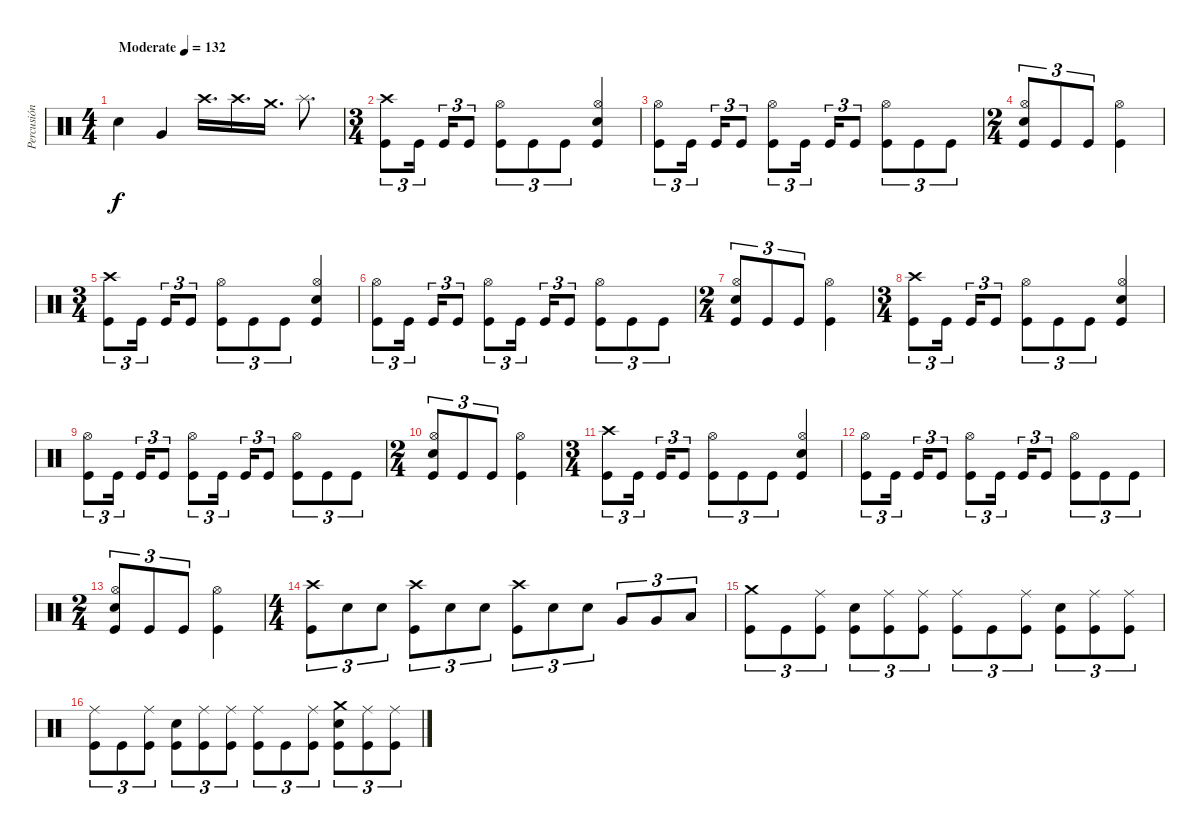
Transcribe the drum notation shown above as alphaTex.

\track ("Percusión" "Percusión") {instrument percussion}
\staff
\articulation defaults
\ts (4 4)
\tempo (132 "Moderate")
\clef neutral
\ks c "Snare (hit) 2".4{dy f} "Very Low Tom (hit)".4 "Crash high (hit)".16{d} "Crash high (hit)".16{d} "Crash medium (hit)".16{d} "Splash (hit)".8{d}
|
\ts (3 4)
("Kick (hit)" "Crash high (hit)").8{tu (3 2)} "Kick (hit)".16{tu (3 2) beam splitsecondary} "Kick (hit)".16{tu (3 2)} "Kick (hit)".8{tu (3 2)} ("Kick (hit)" "Hi-Hat (open)").8{tu (3 2)} "Kick (hit)".8{tu (3 2)} "Kick (hit)".8{tu (3 2)} ("Kick (hit)" "Electric Snare (hit)" "Hi-Hat (open)").4 |
("Kick (hit)" "Hi-Hat (open)").8{tu (3 2)} "Kick (hit)".16{tu (3 2) beam splitsecondary} "Kick (hit)".16{tu (3 2)} "Kick (hit)".8{tu (3 2)} ("Kick (hit)" "Hi-Hat (open)").8{tu (3 2)} "Kick (hit)".16{tu (3 2) beam splitsecondary} "Kick (hit)".16{tu (3 2)} "Kick (hit)".8{tu (3 2)} ("Kick (hit)" "Hi-Hat (open)").8{tu (3 2)} "Kick (hit)".8{tu (3 2)} "Kick (hit)".8{tu (3 2)} |
\ts (2 4)
("Kick (hit)" "Hi-Hat (open)" "Electric Snare (hit)").8{tu (3 2)} "Kick (hit)".8{tu (3 2)} "Kick (hit)".8{tu (3 2)} ("Kick (hit)" "Hi-Hat (open)").4 |
\ts (3 4)
("Kick (hit)" "Crash high (hit)").8{tu (3 2)} "Kick (hit)".16{tu (3 2) beam splitsecondary} "Kick (hit)".16{tu (3 2)} "Kick (hit)".8{tu (3 2)} ("Kick (hit)" "Hi-Hat (open)").8{tu (3 2)} "Kick (hit)".8{tu (3 2)} "Kick (hit)".8{tu (3 2)} ("Kick (hit)" "Electric Snare (hit)" "Hi-Hat (open)").4 |
("Kick (hit)" "Hi-Hat (open)").8{tu (3 2)} "Kick (hit)".16{tu (3 2) beam splitsecondary} "Kick (hit)".16{tu (3 2)} "Kick (hit)".8{tu (3 2)} ("Kick (hit)" "Hi-Hat (open)").8{tu (3 2)} "Kick (hit)".16{tu (3 2) beam splitsecondary} "Kick (hit)".16{tu (3 2)} "Kick (hit)".8{tu (3 2)} ("Kick (hit)" "Hi-Hat (open)").8{tu (3 2)} "Kick (hit)".8{tu (3 2)} "Kick (hit)".8{tu (3 2)} |
\ts (2 4)
("Kick (hit)" "Hi-Hat (open)" "Electric Snare (hit)").8{tu (3 2)} "Kick (hit)".8{tu (3 2)} "Kick (hit)".8{tu (3 2)} ("Kick (hit)" "Hi-Hat (open)").4 |
\ts (3 4)
("Kick (hit)" "Crash high (hit)").8{tu (3 2)} "Kick (hit)".16{tu (3 2) beam splitsecondary} "Kick (hit)".16{tu (3 2)} "Kick (hit)".8{tu (3 2)} ("Kick (hit)" "Hi-Hat (open)").8{tu (3 2)} "Kick (hit)".8{tu (3 2)} "Kick (hit)".8{tu (3 2)} ("Kick (hit)" "Electric Snare (hit)" "Hi-Hat (open)").4 |
("Kick (hit)" "Hi-Hat (open)").8{tu (3 2)} "Kick (hit)".16{tu (3 2) beam splitsecondary} "Kick (hit)".16{tu (3 2)} "Kick (hit)".8{tu (3 2)} ("Kick (hit)" "Hi-Hat (open)").8{tu (3 2)} "Kick (hit)".16{tu (3 2) beam splitsecondary} "Kick (hit)".16{tu (3 2)} "Kick (hit)".8{tu (3 2)} ("Kick (hit)" "Hi-Hat (open)").8{tu (3 2)} "Kick (hit)".8{tu (3 2)} "Kick (hit)".8{tu (3 2)} |
\ts (2 4)
("Kick (hit)" "Hi-Hat (open)" "Electric Snare (hit)").8{tu (3 2)} "Kick (hit)".8{tu (3 2)} "Kick (hit)".8{tu (3 2)} ("Kick (hit)" "Hi-Hat (open)").4 |
\ts (3 4)
("Kick (hit)" "Crash high (hit)").8{tu (3 2)} "Kick (hit)".16{tu (3 2) beam splitsecondary} "Kick (hit)".16{tu (3 2)} "Kick (hit)".8{tu (3 2)} ("Kick (hit)" "Hi-Hat (open)").8{tu (3 2)} "Kick (hit)".8{tu (3 2)} "Kick (hit)".8{tu (3 2)} ("Kick (hit)" "Electric Snare (hit)" "Hi-Hat (open)").4 |
("Kick (hit)" "Hi-Hat (open)").8{tu (3 2)} "Kick (hit)".16{tu (3 2) beam splitsecondary} "Kick (hit)".16{tu (3 2)} "Kick (hit)".8{tu (3 2)} ("Kick (hit)" "Hi-Hat (open)").8{tu (3 2)} "Kick (hit)".16{tu (3 2) beam splitsecondary} "Kick (hit)".16{tu (3 2)} "Kick (hit)".8{tu (3 2)} ("Kick (hit)" "Hi-Hat (open)").8{tu (3 2)} "Kick (hit)".8{tu (3 2)} "Kick (hit)".8{tu (3 2)} |
\ts (2 4)
("Kick (hit)" "Hi-Hat (open)" "Electric Snare (hit)").8{tu (3 2)} "Kick (hit)".8{tu (3 2)} "Kick (hit)".8{tu (3 2)} ("Kick (hit)" "Hi-Hat (open)").4 |
\ts (4 4)
("Kick (hit)" "Crash high (hit)").8{tu (3 2)} "Electric Snare (hit)".8{tu (3 2)} "Electric Snare (hit)".8{tu (3 2)} ("Kick (hit)" "Crash high (hit)").8{tu (3 2)} "Electric Snare (hit)".8{tu (3 2)} "Electric Snare (hit)".8{tu (3 2)} ("Kick (hit)" "Crash high (hit)").8{tu (3 2)} "Electric Snare (hit)".8{tu (3 2)} "Electric Snare (hit)".8{tu (3 2)} "Very Low Tom (hit)".8{tu (3 2)} "Very Low Tom (hit)".8{tu (3 2)} "Low Floor Tom (hit)".8{tu (3 2)} |
("Kick (hit)" "Crash medium (hit)").8{tu (3 2)} "Kick (hit)".8{tu (3 2)} ("Kick (hit)" "Ride (middle)").8{tu (3 2)} ("Kick (hit)" "Electric Snare (hit)").8{tu (3 2)} ("Kick (hit)" "Ride (middle)").8{tu (3 2)} ("Kick (hit)" "Ride (middle)").8{tu (3 2)} ("Kick (hit)" "Ride (middle)").8{tu (3 2)} "Kick (hit)".8{tu (3 2)} ("Kick (hit)" "Ride (middle)").8{tu (3 2)} ("Kick (hit)" "Electric Snare (hit)").8{tu (3 2)} ("Kick (hit)" "Ride (middle)").8{tu (3 2)} ("Kick (hit)" "Ride (middle)").8{tu (3 2)} |
("Kick (hit)" "Ride (middle)").8{tu (3 2)} "Kick (hit)".8{tu (3 2)} ("Kick (hit)" "Ride (middle)").8{tu (3 2)} ("Kick (hit)" "Electric Snare (hit)").8{tu (3 2)} ("Kick (hit)" "Ride (middle)").8{tu (3 2)} ("Kick (hit)" "Ride (middle)").8{tu (3 2)} ("Kick (hit)" "Ride (middle)").8{tu (3 2)} "Kick (hit)".8{tu (3 2)} ("Kick (hit)" "Ride (middle)").8{tu (3 2)} ("Kick (hit)" "Electric Snare (hit)" "Crash medium (hit)").8{tu (3 2)} ("Kick (hit)" "Ride (middle)").8{tu (3 2)} ("Kick (hit)" "Ride (middle)").8{tu (3 2)}
